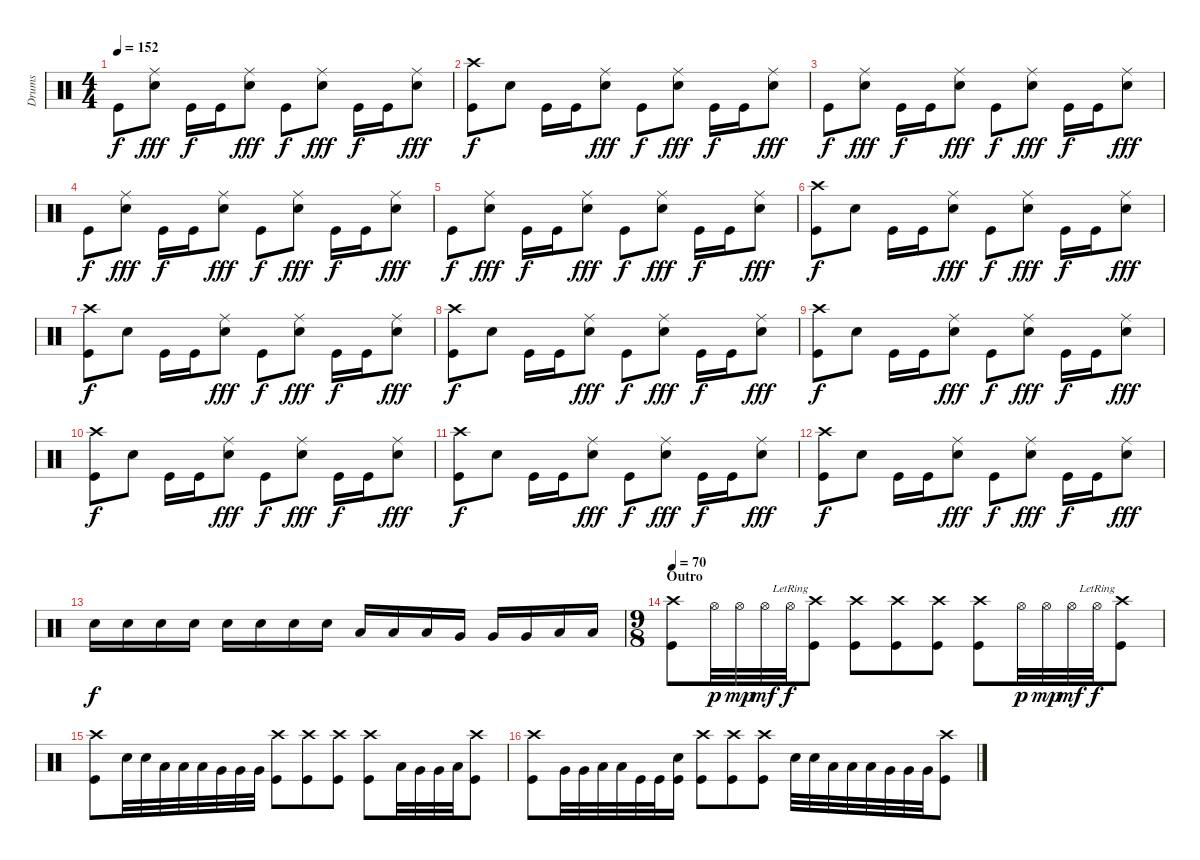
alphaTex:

\track ("Drums" "Drums") {instrument percussion}
\staff {score}
\articulation defaults
\ts (4 4)
\tempo 152
\clef neutral
\ks c "Kick (hit)".8{dy f}
("Ride (middle)" "Snare (hit) 2").8{dy fff} "Kick (hit)".16{dy f} "Kick (hit)".16 ("Ride (middle)" "Snare (hit) 2").8{dy fff} "Kick (hit)".8{dy f} ("Ride (middle)" "Snare (hit) 2").8{dy fff} "Kick (hit)".16{dy f} "Kick (hit)".16 ("Ride (middle)" "Snare (hit) 2").8{dy fff} |
("Crash high (hit)" "Kick (hit)").8{dy f} "Snare (hit) 2".8 "Kick (hit)".16 "Kick (hit)".16 ("Ride (middle)" "Snare (hit) 2").8{dy fff} "Kick (hit)".8{dy f} ("Ride (middle)" "Snare (hit) 2").8{dy fff} "Kick (hit)".16{dy f} "Kick (hit)".16 ("Ride (middle)" "Snare (hit) 2").8{dy fff} |
"Kick (hit)".8{dy f} ("Ride (middle)" "Snare (hit) 2").8{dy fff} "Kick (hit)".16{dy f} "Kick (hit)".16 ("Ride (middle)" "Snare (hit) 2").8{dy fff} "Kick (hit)".8{dy f} ("Ride (middle)" "Snare (hit) 2").8{dy fff} "Kick (hit)".16{dy f} "Kick (hit)".16 ("Ride (middle)" "Snare (hit) 2").8{dy fff} |
"Kick (hit)".8{dy f} ("Ride (middle)" "Snare (hit) 2").8{dy fff} "Kick (hit)".16{dy f} "Kick (hit)".16 ("Ride (middle)" "Snare (hit) 2").8{dy fff} "Kick (hit)".8{dy f} ("Ride (middle)" "Snare (hit) 2").8{dy fff} "Kick (hit)".16{dy f} "Kick (hit)".16 ("Ride (middle)" "Snare (hit) 2").8{dy fff} |
"Kick (hit)".8{dy f} ("Ride (middle)" "Snare (hit) 2").8{dy fff} "Kick (hit)".16{dy f} "Kick (hit)".16 ("Ride (middle)" "Snare (hit) 2").8{dy fff} "Kick (hit)".8{dy f} ("Ride (middle)" "Snare (hit) 2").8{dy fff} "Kick (hit)".16{dy f} "Kick (hit)".16 ("Ride (middle)" "Snare (hit) 2").8{dy fff} |
("Crash high (hit)" "Kick (hit)").8{dy f} "Snare (hit) 2".8 "Kick (hit)".16 "Kick (hit)".16 ("Ride (middle)" "Snare (hit) 2").8{dy fff} "Kick (hit)".8{dy f} ("Ride (middle)" "Snare (hit) 2").8{dy fff} "Kick (hit)".16{dy f} "Kick (hit)".16 ("Ride (middle)" "Snare (hit) 2").8{dy fff} |
("Crash high (hit)" "Kick (hit)").8{dy f} "Snare (hit) 2".8 "Kick (hit)".16 "Kick (hit)".16 ("Ride (middle)" "Snare (hit) 2").8{dy fff} "Kick (hit)".8{dy f} ("Ride (middle)" "Snare (hit) 2").8{dy fff} "Kick (hit)".16{dy f} "Kick (hit)".16 ("Ride (middle)" "Snare (hit) 2").8{dy fff} |
("Crash high (hit)" "Kick (hit)").8{dy f} "Snare (hit) 2".8 "Kick (hit)".16 "Kick (hit)".16 ("Ride (middle)" "Snare (hit) 2").8{dy fff} "Kick (hit)".8{dy f} ("Ride (middle)" "Snare (hit) 2").8{dy fff} "Kick (hit)".16{dy f} "Kick (hit)".16 ("Ride (middle)" "Snare (hit) 2").8{dy fff} |
("Crash high (hit)" "Kick (hit)").8{dy f} "Snare (hit) 2".8 "Kick (hit)".16 "Kick (hit)".16 ("Ride (middle)" "Snare (hit) 2").8{dy fff} "Kick (hit)".8{dy f} ("Ride (middle)" "Snare (hit) 2").8{dy fff} "Kick (hit)".16{dy f} "Kick (hit)".16 ("Ride (middle)" "Snare (hit) 2").8{dy fff} |
("Crash high (hit)" "Kick (hit)").8{dy f} "Snare (hit) 2".8 "Kick (hit)".16 "Kick (hit)".16 ("Ride (middle)" "Snare (hit) 2").8{dy fff} "Kick (hit)".8{dy f} ("Ride (middle)" "Snare (hit) 2").8{dy fff} "Kick (hit)".16{dy f} "Kick (hit)".16 ("Ride (middle)" "Snare (hit) 2").8{dy fff} |
("Crash high (hit)" "Kick (hit)").8{dy f} "Snare (hit) 2".8 "Kick (hit)".16 "Kick (hit)".16 ("Ride (middle)" "Snare (hit) 2").8{dy fff} "Kick (hit)".8{dy f} ("Ride (middle)" "Snare (hit) 2").8{dy fff} "Kick (hit)".16{dy f} "Kick (hit)".16 ("Ride (middle)" "Snare (hit) 2").8{dy fff} |
("Crash high (hit)" "Kick (hit)").8{dy f} "Snare (hit) 2".8 "Kick (hit)".16 "Kick (hit)".16 ("Ride (middle)" "Snare (hit) 2").8{dy fff} "Kick (hit)".8{dy f} ("Ride (middle)" "Snare (hit) 2").8{dy fff} "Kick (hit)".16{dy f} "Kick (hit)".16 ("Ride (middle)" "Snare (hit) 2").8{dy fff} |
"Snare (hit) 2".16{dy f} "Snare (hit) 2".16 "Snare (hit) 2".16 "Snare (hit) 2".16 "Snare (hit) 2".16 "Snare (hit) 2".16 "Snare (hit) 2".16 "Snare (hit) 2".16 "Low Tom (hit)".16 "Low Tom (hit)".16 "Low Tom (hit)".16 "Very Low Tom (hit)".16 "Very Low Tom (hit)".16 "Very Low Tom (hit)".16 "Low Floor Tom (hit)".16 "Low Floor Tom (hit)".16 |
\ts (9 8)
\section ("" "Outro")
\tempo 70
("Crash high (hit)" "Kick (hit)").8 "Hi-Hat (open)".32{dy p} "Hi-Hat (open)".32{dy mp} "Hi-Hat (open)".32{dy mf} "Hi-Hat (open)"{lr}.32{dy f} ("Crash high (hit)" "Kick (hit)").8 ("Crash high (hit)" "Kick (hit)").8 ("Crash high (hit)" "Kick (hit)").8 ("Crash high (hit)" "Kick (hit)").8 ("Crash high (hit)" "Kick (hit)").8 "Hi-Hat (open)".32{dy p} "Hi-Hat (open)".32{dy mp} "Hi-Hat (open)".32{dy mf} "Hi-Hat (open)"{lr}.32{dy f} ("Crash high (hit)" "Kick (hit)").8 |
("Crash high (hit)" "Kick (hit)").8 "Snare (hit) 2".32 "Snare (hit) 2".32 "Low Tom (hit)".32 "Low Tom (hit)".32 "Low Tom (hit)".32 "Very Low Tom (hit)".32 "Very Low Tom (hit)".32 "Very Low Tom (hit)".32 ("Crash high (hit)" "Kick (hit)").8 ("Crash high (hit)" "Kick (hit)").8 ("Crash high (hit)" "Kick (hit)").8 ("Crash high (hit)" "Kick (hit)").8 "Low Tom (hit)".32 "Very Low Tom (hit)".32 "Very Low Tom (hit)".32 "Low Floor Tom (hit)".32 ("Crash high (hit)" "Kick (hit)").8 |
("Crash high (hit)" "Kick (hit)").8 "Very Low Tom (hit)".32 "Very Low Tom (hit)".32 "Low Floor Tom (hit)".32 "Low Floor Tom (hit)".32 "Kick (hit)".32 "Kick (hit)".32 ("Electric Snare (hit)" "Kick (hit)").16 ("Crash high (hit)" "Kick (hit)").8 ("Crash high (hit)" "Kick (hit)").8 ("Crash high (hit)" "Kick (hit)").8 "Snare (hit) 2".32 "Snare (hit) 2".32 "Low Tom (hit)".32 "Low Tom (hit)".32 "Low Tom (hit)".32 "Very Low Tom (hit)".32 "Very Low Tom (hit)".32 "Very Low Tom (hit)".32 ("Crash high (hit)" "Kick (hit)").8
